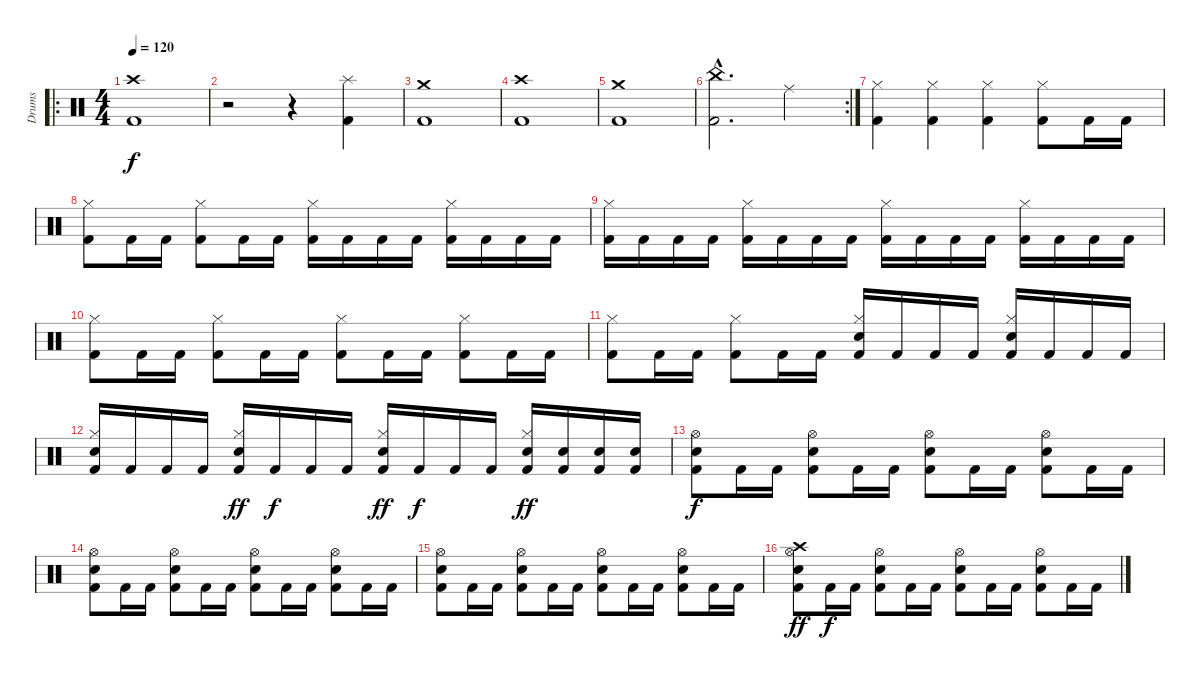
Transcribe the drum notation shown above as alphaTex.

\track ("Drums" "Drums") {instrument percussion}
\staff {score}
\articulation defaults
\ro
\ts (4 4)
\tempo 120
\clef neutral
\ks c
("Kick (hit) 2" "Crash high (hit)").1{dy f} |
r.2 r.4 ("Splash (hit)" "Kick (hit) 2").4 |
("Kick (hit) 2" "Crash medium (hit)").1 |
("Kick (hit) 2" "Crash high (hit)").1 |
("Kick (hit) 2" "Crash medium (hit)").1 |
\rc 2
("China (hit)"{hac} "Kick (hit) 2"{hac}).2{d} "Ride (middle)".4 |
("Hi-Hat (closed)" "Kick (hit) 2").4 ("Hi-Hat (closed)" "Kick (hit) 2").4 ("Hi-Hat (closed)" "Kick (hit) 2").4 ("Hi-Hat (closed)" "Kick (hit) 2").8 "Kick (hit) 2".16 "Kick (hit) 2".16 |
("Hi-Hat (closed)" "Kick (hit) 2").8 "Kick (hit) 2".16 "Kick (hit) 2".16 ("Hi-Hat (closed)" "Kick (hit) 2").8 "Kick (hit) 2".16 "Kick (hit) 2".16 ("Hi-Hat (closed)" "Kick (hit) 2").16 "Kick (hit) 2".16 "Kick (hit) 2".16 "Kick (hit) 2".16 ("Hi-Hat (closed)" "Kick (hit) 2").16 "Kick (hit) 2".16 "Kick (hit) 2".16 "Kick (hit) 2".16 |
("Hi-Hat (closed)" "Kick (hit) 2").16 "Kick (hit) 2".16 "Kick (hit) 2".16 "Kick (hit) 2".16 ("Hi-Hat (closed)" "Kick (hit) 2").16 "Kick (hit) 2".16 "Kick (hit) 2".16 "Kick (hit) 2".16 ("Hi-Hat (closed)" "Kick (hit) 2").16 "Kick (hit) 2".16 "Kick (hit) 2".16 "Kick (hit) 2".16 ("Hi-Hat (closed)" "Kick (hit) 2").16 "Kick (hit) 2".16 "Kick (hit) 2".16 "Kick (hit) 2".16 |
("Hi-Hat (closed)" "Kick (hit) 2").8 "Kick (hit) 2".16 "Kick (hit) 2".16 ("Hi-Hat (closed)" "Kick (hit) 2").8 "Kick (hit) 2".16 "Kick (hit) 2".16 ("Hi-Hat (closed)" "Kick (hit) 2").8 "Kick (hit) 2".16 "Kick (hit) 2".16 ("Hi-Hat (closed)" "Kick (hit) 2").8 "Kick (hit) 2".16 "Kick (hit) 2".16 |
("Hi-Hat (closed)" "Kick (hit) 2").8 "Kick (hit) 2".16 "Kick (hit) 2".16 ("Hi-Hat (closed)" "Kick (hit) 2").8 "Kick (hit) 2".16 "Kick (hit) 2".16 ("Hi-Hat (closed)" "Kick (hit) 2" "Snare (hit) 2").16 "Kick (hit) 2".16 "Kick (hit) 2".16 "Kick (hit) 2".16 ("Hi-Hat (closed)" "Kick (hit) 2" "Snare (hit) 2").16 "Kick (hit) 2".16 "Kick (hit) 2".16 "Kick (hit) 2".16 |
("Hi-Hat (closed)" "Kick (hit) 2" "Snare (hit) 2").16 "Kick (hit) 2".16 "Kick (hit) 2".16 "Kick (hit) 2".16 ("Hi-Hat (closed)" "Kick (hit) 2" "Snare (hit) 2").16{dy ff} "Kick (hit) 2".16{dy f} "Kick (hit) 2".16 "Kick (hit) 2".16 ("Hi-Hat (closed)" "Kick (hit) 2" "Snare (hit) 2").16{dy ff} "Kick (hit) 2".16{dy f} "Kick (hit) 2".16 "Kick (hit) 2".16 ("Hi-Hat (closed)" "Kick (hit) 2" "Snare (hit) 2").16{dy ff} ("Kick (hit) 2" "Snare (hit) 2").16 ("Kick (hit) 2" "Snare (hit) 2").16 ("Kick (hit) 2" "Snare (hit) 2").16 |
("Hi-Hat (open)" "Snare (hit) 2" "Kick (hit) 2").8{dy f} "Kick (hit) 2".16 "Kick (hit) 2".16 ("Hi-Hat (open)" "Snare (hit) 2" "Kick (hit) 2").8 "Kick (hit) 2".16 "Kick (hit) 2".16 ("Hi-Hat (open)" "Snare (hit) 2" "Kick (hit) 2").8 "Kick (hit) 2".16 "Kick (hit) 2".16 ("Hi-Hat (open)" "Snare (hit) 2" "Kick (hit) 2").8 "Kick (hit) 2".16 "Kick (hit) 2".16 |
("Hi-Hat (open)" "Snare (hit) 2" "Kick (hit) 2").8 "Kick (hit) 2".16 "Kick (hit) 2".16 ("Hi-Hat (open)" "Snare (hit) 2" "Kick (hit) 2").8 "Kick (hit) 2".16 "Kick (hit) 2".16 ("Hi-Hat (open)" "Snare (hit) 2" "Kick (hit) 2").8 "Kick (hit) 2".16 "Kick (hit) 2".16 ("Hi-Hat (open)" "Snare (hit) 2" "Kick (hit) 2").8 "Kick (hit) 2".16 "Kick (hit) 2".16 |
("Hi-Hat (open)" "Snare (hit) 2" "Kick (hit) 2").8 "Kick (hit) 2".16 "Kick (hit) 2".16 ("Hi-Hat (open)" "Snare (hit) 2" "Kick (hit) 2").8 "Kick (hit) 2".16 "Kick (hit) 2".16 ("Hi-Hat (open)" "Snare (hit) 2" "Kick (hit) 2").8 "Kick (hit) 2".16 "Kick (hit) 2".16 ("Hi-Hat (open)" "Snare (hit) 2" "Kick (hit) 2").8 "Kick (hit) 2".16 "Kick (hit) 2".16 |
("Hi-Hat (open)" "Crash high (hit)" "Snare (hit) 2" "Kick (hit) 2").8{dy ff} "Kick (hit) 2".16{dy f} "Kick (hit) 2".16 ("Hi-Hat (open)" "Snare (hit) 2" "Kick (hit) 2").8 "Kick (hit) 2".16 "Kick (hit) 2".16 ("Hi-Hat (open)" "Snare (hit) 2" "Kick (hit) 2").8 "Kick (hit) 2".16 "Kick (hit) 2".16 ("Hi-Hat (open)" "Snare (hit) 2" "Kick (hit) 2").8 "Kick (hit) 2".16 "Kick (hit) 2".16
